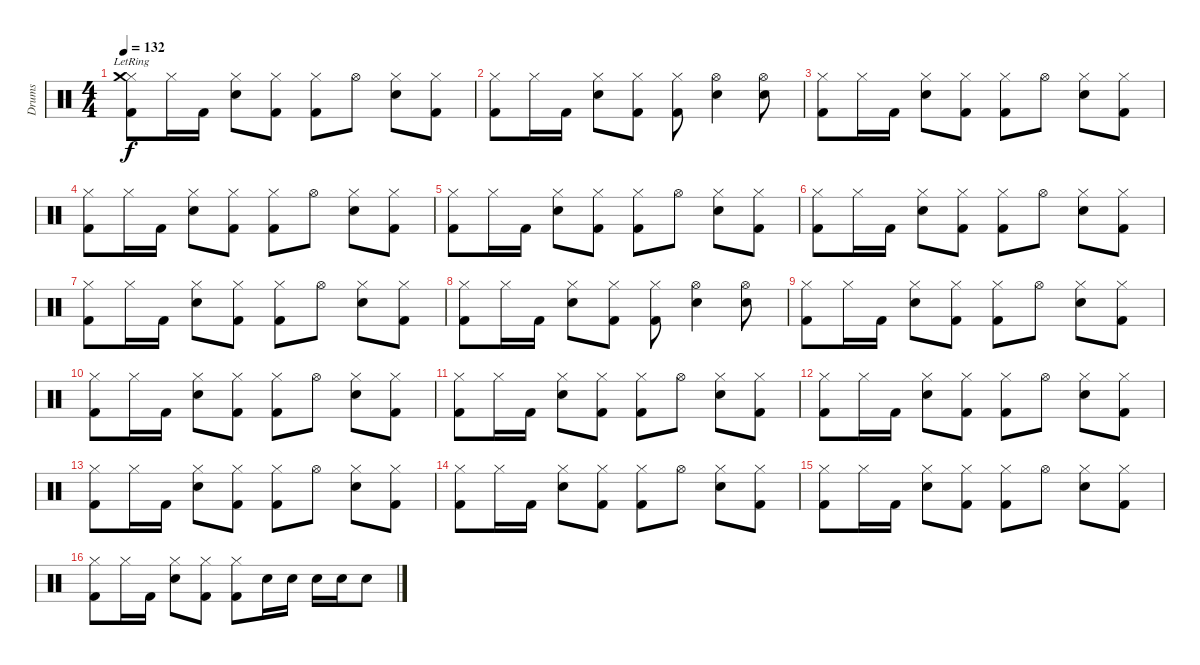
\track ("Drums" "Drums") {instrument percussion}
\staff {score}
\articulation defaults
\ts (4 4)
\tempo 132
\clef neutral
\ks c
("Kick (hit) 2" "Hi-Hat (closed)" "Crash medium (hit)"{lr}).8{dy f} "Hi-Hat (closed)".16 "Kick (hit) 2".16 ("Electric Snare (hit)" "Hi-Hat (closed)").8 ("Kick (hit) 2" "Hi-Hat (closed)").8 ("Kick (hit) 2" "Hi-Hat (closed)").8 "Hi-Hat (open)".8 ("Electric Snare (hit)" "Hi-Hat (closed)").8 ("Kick (hit) 2" "Hi-Hat (closed)").8 |
("Kick (hit) 2" "Hi-Hat (closed)").8 "Hi-Hat (closed)".16 "Kick (hit) 2".16 ("Electric Snare (hit)" "Hi-Hat (closed)").8 ("Kick (hit) 2" "Hi-Hat (closed)").8 ("Kick (hit) 2" "Hi-Hat (closed)").8 ("Electric Snare (hit)" "Hi-Hat (open)").4 ("Electric Snare (hit)" "Hi-Hat (open)").8 |
("Kick (hit) 2" "Hi-Hat (closed)").8 "Hi-Hat (closed)".16 "Kick (hit) 2".16 ("Electric Snare (hit)" "Hi-Hat (closed)").8 ("Kick (hit) 2" "Hi-Hat (closed)").8 ("Kick (hit) 2" "Hi-Hat (closed)").8 "Hi-Hat (open)".8 ("Electric Snare (hit)" "Hi-Hat (closed)").8 ("Kick (hit) 2" "Hi-Hat (closed)").8 |
("Kick (hit) 2" "Hi-Hat (closed)").8 "Hi-Hat (closed)".16 "Kick (hit) 2".16 ("Electric Snare (hit)" "Hi-Hat (closed)").8 ("Kick (hit) 2" "Hi-Hat (closed)").8 ("Kick (hit) 2" "Hi-Hat (closed)").8 "Hi-Hat (open)".8 ("Electric Snare (hit)" "Hi-Hat (closed)").8 ("Kick (hit) 2" "Hi-Hat (closed)").8 |
("Kick (hit) 2" "Hi-Hat (closed)").8 "Hi-Hat (closed)".16 "Kick (hit) 2".16 ("Electric Snare (hit)" "Hi-Hat (closed)").8 ("Kick (hit) 2" "Hi-Hat (closed)").8 ("Kick (hit) 2" "Hi-Hat (closed)").8 "Hi-Hat (open)".8 ("Electric Snare (hit)" "Hi-Hat (closed)").8 ("Kick (hit) 2" "Hi-Hat (closed)").8 |
("Kick (hit) 2" "Hi-Hat (closed)").8 "Hi-Hat (closed)".16 "Kick (hit) 2".16 ("Electric Snare (hit)" "Hi-Hat (closed)").8 ("Kick (hit) 2" "Hi-Hat (closed)").8 ("Kick (hit) 2" "Hi-Hat (closed)").8 "Hi-Hat (open)".8 ("Electric Snare (hit)" "Hi-Hat (closed)").8 ("Kick (hit) 2" "Hi-Hat (closed)").8 |
("Kick (hit) 2" "Hi-Hat (closed)").8 "Hi-Hat (closed)".16 "Kick (hit) 2".16 ("Electric Snare (hit)" "Hi-Hat (closed)").8 ("Kick (hit) 2" "Hi-Hat (closed)").8 ("Kick (hit) 2" "Hi-Hat (closed)").8 "Hi-Hat (open)".8 ("Electric Snare (hit)" "Hi-Hat (closed)").8 ("Kick (hit) 2" "Hi-Hat (closed)").8 |
("Kick (hit) 2" "Hi-Hat (closed)").8 "Hi-Hat (closed)".16 "Kick (hit) 2".16 ("Electric Snare (hit)" "Hi-Hat (closed)").8 ("Kick (hit) 2" "Hi-Hat (closed)").8 ("Kick (hit) 2" "Hi-Hat (closed)").8 ("Electric Snare (hit)" "Hi-Hat (open)").4 ("Electric Snare (hit)" "Hi-Hat (open)").8 |
("Kick (hit) 2" "Hi-Hat (closed)").8 "Hi-Hat (closed)".16 "Kick (hit) 2".16 ("Electric Snare (hit)" "Hi-Hat (closed)").8 ("Kick (hit) 2" "Hi-Hat (closed)").8 ("Kick (hit) 2" "Hi-Hat (closed)").8 "Hi-Hat (open)".8 ("Electric Snare (hit)" "Hi-Hat (closed)").8 ("Kick (hit) 2" "Hi-Hat (closed)").8 |
("Kick (hit) 2" "Hi-Hat (closed)").8 "Hi-Hat (closed)".16 "Kick (hit) 2".16 ("Electric Snare (hit)" "Hi-Hat (closed)").8 ("Kick (hit) 2" "Hi-Hat (closed)").8 ("Kick (hit) 2" "Hi-Hat (closed)").8 "Hi-Hat (open)".8 ("Electric Snare (hit)" "Hi-Hat (closed)").8 ("Kick (hit) 2" "Hi-Hat (closed)").8 |
("Kick (hit) 2" "Hi-Hat (closed)").8 "Hi-Hat (closed)".16 "Kick (hit) 2".16 ("Electric Snare (hit)" "Hi-Hat (closed)").8 ("Kick (hit) 2" "Hi-Hat (closed)").8 ("Kick (hit) 2" "Hi-Hat (closed)").8 "Hi-Hat (open)".8 ("Electric Snare (hit)" "Hi-Hat (closed)").8 ("Kick (hit) 2" "Hi-Hat (closed)").8 |
("Kick (hit) 2" "Hi-Hat (closed)").8 "Hi-Hat (closed)".16 "Kick (hit) 2".16 ("Electric Snare (hit)" "Hi-Hat (closed)").8 ("Kick (hit) 2" "Hi-Hat (closed)").8 ("Kick (hit) 2" "Hi-Hat (closed)").8 "Hi-Hat (open)".8 ("Electric Snare (hit)" "Hi-Hat (closed)").8 ("Kick (hit) 2" "Hi-Hat (closed)").8 |
("Kick (hit) 2" "Hi-Hat (closed)").8 "Hi-Hat (closed)".16 "Kick (hit) 2".16 ("Electric Snare (hit)" "Hi-Hat (closed)").8 ("Kick (hit) 2" "Hi-Hat (closed)").8 ("Kick (hit) 2" "Hi-Hat (closed)").8 "Hi-Hat (open)".8 ("Electric Snare (hit)" "Hi-Hat (closed)").8 ("Kick (hit) 2" "Hi-Hat (closed)").8 |
("Kick (hit) 2" "Hi-Hat (closed)").8 "Hi-Hat (closed)".16 "Kick (hit) 2".16 ("Electric Snare (hit)" "Hi-Hat (closed)").8 ("Kick (hit) 2" "Hi-Hat (closed)").8 ("Kick (hit) 2" "Hi-Hat (closed)").8 "Hi-Hat (open)".8 ("Electric Snare (hit)" "Hi-Hat (closed)").8 ("Kick (hit) 2" "Hi-Hat (closed)").8 |
("Kick (hit) 2" "Hi-Hat (closed)").8 "Hi-Hat (closed)".16 "Kick (hit) 2".16 ("Electric Snare (hit)" "Hi-Hat (closed)").8 ("Kick (hit) 2" "Hi-Hat (closed)").8 ("Kick (hit) 2" "Hi-Hat (closed)").8 "Hi-Hat (open)".8 ("Electric Snare (hit)" "Hi-Hat (closed)").8 ("Kick (hit) 2" "Hi-Hat (closed)").8 |
("Kick (hit) 2" "Hi-Hat (closed)").8 "Hi-Hat (closed)".16 "Kick (hit) 2".16 ("Electric Snare (hit)" "Hi-Hat (closed)").8 ("Kick (hit) 2" "Hi-Hat (closed)").8 ("Kick (hit) 2" "Hi-Hat (closed)").8 "Electric Snare (hit)".16 "Electric Snare (hit)".16 "Electric Snare (hit)".16 "Electric Snare (hit)".16 "Electric Snare (hit)".8
